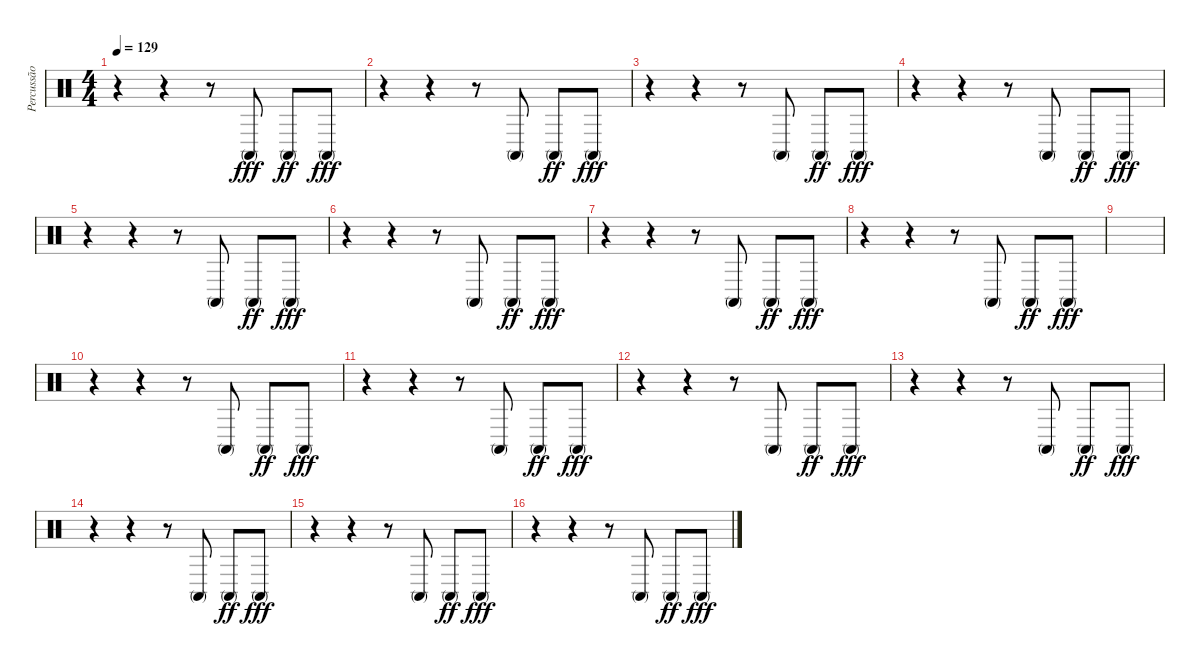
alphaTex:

\track ("Percussão" "Percussão") {instrument percussion}
\staff {score}
\articulation defaults
\ts (4 4)
\tempo 129
\clef neutral
\ks c
r.4{dy fff} r.4 r.8 "Conga high (mute)".8 "Conga high (mute)".8{dy ff} "Conga high (mute)".8{dy fff} |
r.4 r.4 r.8 "Conga high (mute)".8 "Conga high (mute)".8{dy ff} "Conga high (mute)".8{dy fff} |
r.4 r.4 r.8 "Conga high (mute)".8 "Conga high (mute)".8{dy ff} "Conga high (mute)".8{dy fff} |
r.4 r.4 r.8 "Conga high (mute)".8 "Conga high (mute)".8{dy ff} "Conga high (mute)".8{dy fff} |
r.4 r.4 r.8 "Conga high (mute)".8 "Conga high (mute)".8{dy ff} "Conga high (mute)".8{dy fff} |
r.4 r.4 r.8 "Conga high (mute)".8 "Conga high (mute)".8{dy ff} "Conga high (mute)".8{dy fff} |
r.4 r.4 r.8 "Conga high (mute)".8 "Conga high (mute)".8{dy ff} "Conga high (mute)".8{dy fff} |
r.4 r.4 r.8 "Conga high (mute)".8 "Conga high (mute)".8{dy ff} "Conga high (mute)".8{dy fff} |
|
r.4 r.4 r.8 "Conga high (mute)".8 "Conga high (mute)".8{dy ff} "Conga high (mute)".8{dy fff} |
r.4 r.4 r.8 "Conga high (mute)".8 "Conga high (mute)".8{dy ff} "Conga high (mute)".8{dy fff} |
r.4 r.4 r.8 "Conga high (mute)".8 "Conga high (mute)".8{dy ff} "Conga high (mute)".8{dy fff} |
r.4 r.4 r.8 "Conga high (mute)".8 "Conga high (mute)".8{dy ff} "Conga high (mute)".8{dy fff} |
r.4 r.4 r.8 "Conga high (mute)".8 "Conga high (mute)".8{dy ff} "Conga high (mute)".8{dy fff} |
r.4 r.4 r.8 "Conga high (mute)".8 "Conga high (mute)".8{dy ff} "Conga high (mute)".8{dy fff} |
r.4 r.4 r.8 "Conga high (mute)".8 "Conga high (mute)".8{dy ff} "Conga high (mute)".8{dy fff}
